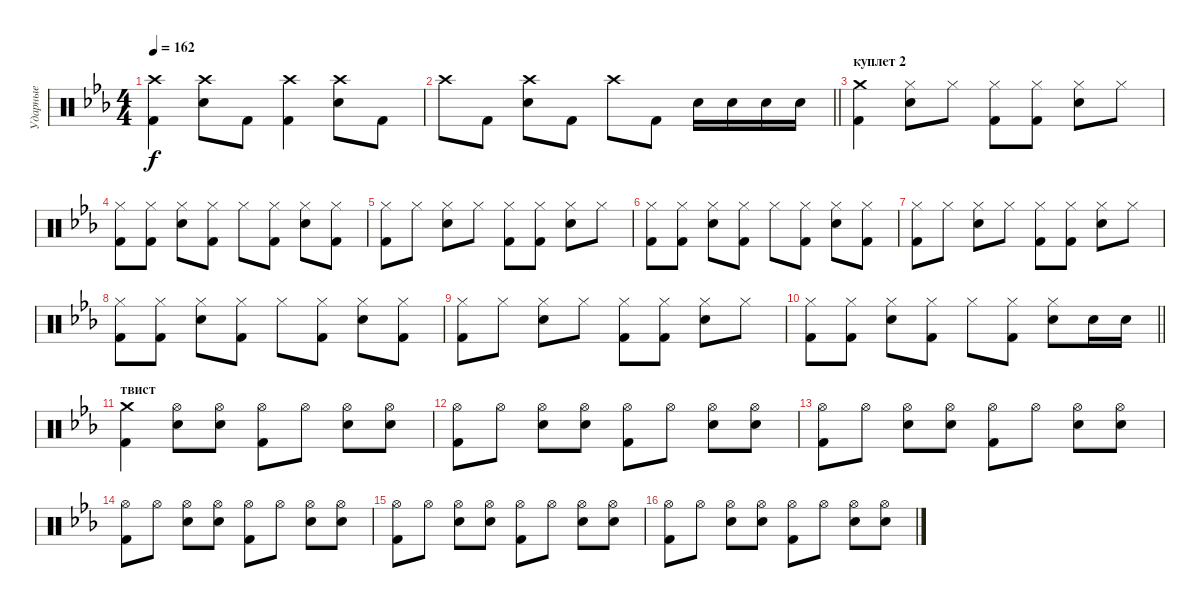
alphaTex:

\track ("Ударные" "Ударные") {instrument percussion}
\staff {score}
\articulation defaults
\ts (4 4)
\tempo 162
\clef neutral
\ks cminor
("Crash high (hit)" "Kick (hit) 2").4{dy f} ("Crash high (hit)" "Snare (hit) 2").8 "Kick (hit) 2".8 ("Crash high (hit)" "Kick (hit) 2").4 ("Crash high (hit)" "Snare (hit) 2").8 "Kick (hit) 2".8 |
\barLineRight lightlight "Crash high (hit)".8 "Kick (hit) 2".8
("Crash high (hit)" "Snare (hit) 2").8 "Kick (hit) 2".8 "Crash high (hit)".8 "Kick (hit) 2".8 "Snare (hit) 2".16 "Snare (hit) 2".16 "Snare (hit) 2".16 "Snare (hit) 2".16 |
\section ("" "куплет 2")
("Crash medium (hit)" "Kick (hit) 2").4 ("Hi-Hat (closed)" "Snare (hit) 2").8 "Hi-Hat (closed)".8 ("Hi-Hat (closed)" "Kick (hit) 2").8 ("Hi-Hat (closed)" "Kick (hit) 2").8 ("Hi-Hat (closed)" "Snare (hit) 2").8 "Hi-Hat (closed)".8 |
("Hi-Hat (closed)" "Kick (hit) 2").8 ("Hi-Hat (closed)" "Kick (hit) 2").8 ("Hi-Hat (closed)" "Snare (hit) 2").8 ("Hi-Hat (closed)" "Kick (hit) 2").8 "Hi-Hat (closed)".8 ("Hi-Hat (closed)" "Kick (hit) 2").8 ("Hi-Hat (closed)" "Snare (hit) 2").8 ("Hi-Hat (closed)" "Kick (hit) 2").8 |
("Hi-Hat (closed)" "Kick (hit) 2").8 "Hi-Hat (closed)".8 ("Hi-Hat (closed)" "Snare (hit) 2").8 "Hi-Hat (closed)".8 ("Hi-Hat (closed)" "Kick (hit) 2").8 ("Hi-Hat (closed)" "Kick (hit) 2").8 ("Hi-Hat (closed)" "Snare (hit) 2").8 "Hi-Hat (closed)".8 |
("Hi-Hat (closed)" "Kick (hit) 2").8 ("Hi-Hat (closed)" "Kick (hit) 2").8 ("Hi-Hat (closed)" "Snare (hit) 2").8 ("Hi-Hat (closed)" "Kick (hit) 2").8 "Hi-Hat (closed)".8 ("Hi-Hat (closed)" "Kick (hit) 2").8 ("Hi-Hat (closed)" "Snare (hit) 2").8 ("Hi-Hat (closed)" "Kick (hit) 2").8 |
("Hi-Hat (closed)" "Kick (hit) 2").8 "Hi-Hat (closed)".8 ("Hi-Hat (closed)" "Snare (hit) 2").8 "Hi-Hat (closed)".8 ("Hi-Hat (closed)" "Kick (hit) 2").8 ("Hi-Hat (closed)" "Kick (hit) 2").8 ("Hi-Hat (closed)" "Snare (hit) 2").8 "Hi-Hat (closed)".8 |
("Hi-Hat (closed)" "Kick (hit) 2").8 ("Hi-Hat (closed)" "Kick (hit) 2").8 ("Hi-Hat (closed)" "Snare (hit) 2").8 ("Hi-Hat (closed)" "Kick (hit) 2").8 "Hi-Hat (closed)".8 ("Hi-Hat (closed)" "Kick (hit) 2").8 ("Hi-Hat (closed)" "Snare (hit) 2").8 ("Hi-Hat (closed)" "Kick (hit) 2").8 |
("Hi-Hat (closed)" "Kick (hit) 2").8 "Hi-Hat (closed)".8 ("Hi-Hat (closed)" "Snare (hit) 2").8 "Hi-Hat (closed)".8 ("Hi-Hat (closed)" "Kick (hit) 2").8 ("Hi-Hat (closed)" "Kick (hit) 2").8 ("Hi-Hat (closed)" "Snare (hit) 2").8 "Hi-Hat (closed)".8 |
\barLineRight lightlight
("Hi-Hat (closed)" "Kick (hit) 2").8 ("Hi-Hat (closed)" "Kick (hit) 2").8 ("Hi-Hat (closed)" "Snare (hit) 2").8 ("Hi-Hat (closed)" "Kick (hit) 2").8 "Hi-Hat (closed)".8 ("Hi-Hat (closed)" "Kick (hit) 2").8 ("Hi-Hat (closed)" "Snare (hit) 2").8 "Snare (hit) 2".16 "Snare (hit) 2".16 |
\section ("" "твист")
("Crash medium (hit)" "Kick (hit) 2").4 ("Hi-Hat (open)" "Snare (hit) 2").8 ("Hi-Hat (open)" "Snare (hit) 2").8 ("Hi-Hat (open)" "Kick (hit) 2").8 "Hi-Hat (open)".8 ("Hi-Hat (open)" "Snare (hit) 2").8 ("Hi-Hat (open)" "Snare (hit) 2").8 |
("Hi-Hat (open)" "Kick (hit) 2").8 "Hi-Hat (open)".8 ("Hi-Hat (open)" "Snare (hit) 2").8 ("Hi-Hat (open)" "Snare (hit) 2").8 ("Hi-Hat (open)" "Kick (hit) 2").8 "Hi-Hat (open)".8 ("Hi-Hat (open)" "Snare (hit) 2").8 ("Hi-Hat (open)" "Snare (hit) 2").8 |
("Hi-Hat (open)" "Kick (hit) 2").8 "Hi-Hat (open)".8 ("Hi-Hat (open)" "Snare (hit) 2").8 ("Hi-Hat (open)" "Snare (hit) 2").8 ("Hi-Hat (open)" "Kick (hit) 2").8 "Hi-Hat (open)".8 ("Hi-Hat (open)" "Snare (hit) 2").8 ("Hi-Hat (open)" "Snare (hit) 2").8 |
("Hi-Hat (open)" "Kick (hit) 2").8 "Hi-Hat (open)".8 ("Hi-Hat (open)" "Snare (hit) 2").8 ("Hi-Hat (open)" "Snare (hit) 2").8 ("Hi-Hat (open)" "Kick (hit) 2").8 "Hi-Hat (open)".8 ("Hi-Hat (open)" "Snare (hit) 2").8 ("Hi-Hat (open)" "Snare (hit) 2").8 |
("Hi-Hat (open)" "Kick (hit) 2").8 "Hi-Hat (open)".8 ("Hi-Hat (open)" "Snare (hit) 2").8 ("Hi-Hat (open)" "Snare (hit) 2").8 ("Hi-Hat (open)" "Kick (hit) 2").8 "Hi-Hat (open)".8 ("Hi-Hat (open)" "Snare (hit) 2").8 ("Hi-Hat (open)" "Snare (hit) 2").8 |
("Hi-Hat (open)" "Kick (hit) 2").8 "Hi-Hat (open)".8 ("Hi-Hat (open)" "Snare (hit) 2").8 ("Hi-Hat (open)" "Snare (hit) 2").8 ("Hi-Hat (open)" "Kick (hit) 2").8 "Hi-Hat (open)".8 ("Hi-Hat (open)" "Snare (hit) 2").8 ("Hi-Hat (open)" "Snare (hit) 2").8
